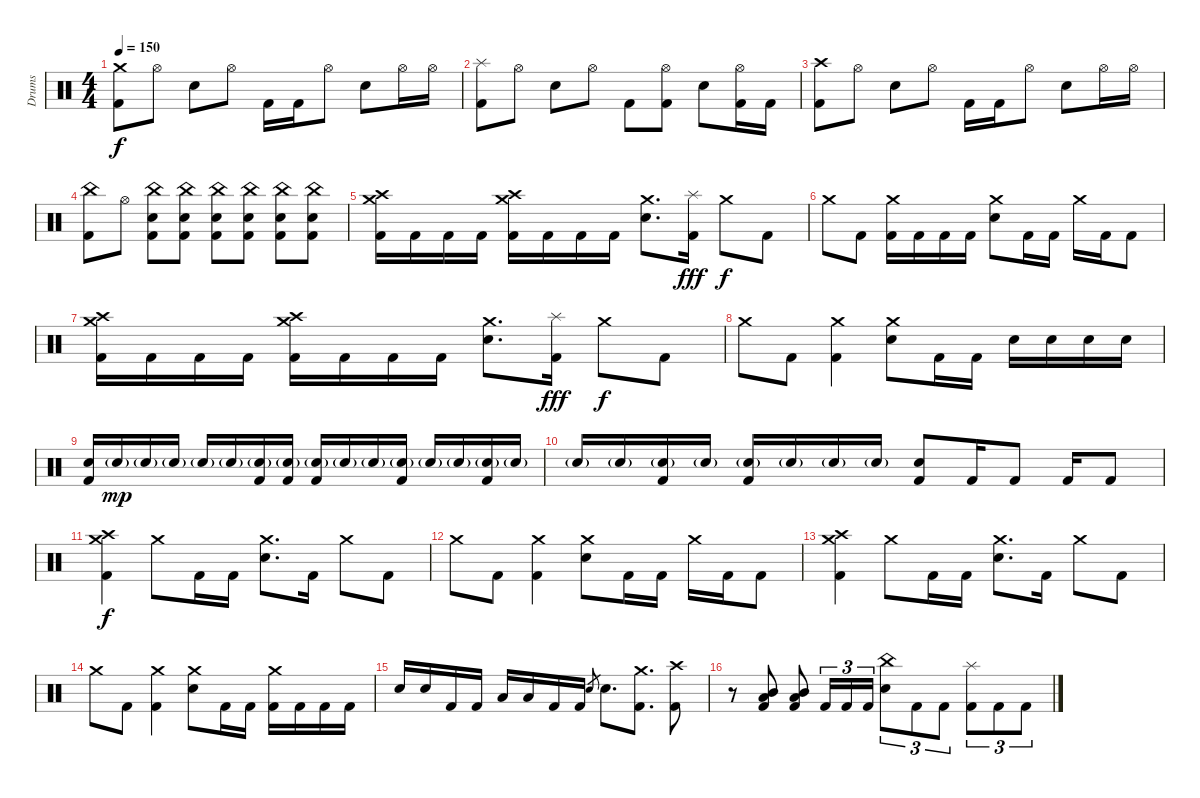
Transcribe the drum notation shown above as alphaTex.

\track ("Drums" "Drums") {instrument percussion}
\staff {score}
\articulation defaults
\ts (4 4)
\tempo 150
\clef neutral
\ks c
("Crash medium (hit)" "Kick (hit) 2").8{dy f} "Hi-Hat (open)".8 "Electric Snare (hit)".8 "Hi-Hat (open)".8 "Kick (hit) 2".16 "Kick (hit) 2".16 "Hi-Hat (open)".8 "Electric Snare (hit)".8 "Hi-Hat (open)".16 "Hi-Hat (open)".16 |
("Splash (hit)" "Kick (hit) 2").8 "Hi-Hat (open)".8 "Electric Snare (hit)".8 "Hi-Hat (open)".8 "Kick (hit) 2".8 ("Hi-Hat (open)" "Kick (hit) 2").8 "Electric Snare (hit)".8 ("Hi-Hat (open)" "Kick (hit) 2").16 "Kick (hit) 2".16 |
("Crash high (hit)" "Kick (hit) 2").8 "Hi-Hat (open)".8 "Electric Snare (hit)".8 "Hi-Hat (open)".8 "Kick (hit) 2".16 "Kick (hit) 2".16 "Hi-Hat (open)".8 "Electric Snare (hit)".8 "Hi-Hat (open)".16 "Hi-Hat (open)".16 |
("China (hit)" "Kick (hit) 2").8 "Hi-Hat (open)".8 ("China (hit)" "Electric Snare (hit)" "Kick (hit) 2").8 ("China (hit)" "Electric Snare (hit)" "Kick (hit) 2").8 ("China (hit)" "Electric Snare (hit)" "Kick (hit) 2").8 ("China (hit)" "Electric Snare (hit)" "Kick (hit) 2").8 ("China (hit)" "Electric Snare (hit)" "Kick (hit) 2").8 ("China (hit)" "Electric Snare (hit)" "Kick (hit) 2").8 |
("Crash medium (hit)" "Crash high (hit)" "Kick (hit) 2").16 "Kick (hit) 2".16 "Kick (hit) 2".16 "Kick (hit) 2".16 ("Crash medium (hit)" "Crash high (hit)" "Kick (hit) 2").16 "Kick (hit) 2".16 "Kick (hit) 2".16 "Kick (hit) 2".16 ("Crash medium (hit)" "Electric Snare (hit)").8{d} ("Splash (hit)" "Kick (hit) 2").16{dy fff} "Crash medium (hit)".8{dy f} "Kick (hit) 2".8 |
"Crash medium (hit)".8 "Kick (hit) 2".8 ("Crash medium (hit)" "Kick (hit) 2").16 "Kick (hit) 2".16 "Kick (hit) 2".16 "Kick (hit) 2".16 ("Crash medium (hit)" "Electric Snare (hit)").8 "Kick (hit) 2".16 "Kick (hit) 2".16 "Crash medium (hit)".16 "Kick (hit) 2".16 "Kick (hit) 2".8 |
("Crash medium (hit)" "Crash high (hit)" "Kick (hit) 2").16 "Kick (hit) 2".16 "Kick (hit) 2".16 "Kick (hit) 2".16 ("Crash medium (hit)" "Crash high (hit)" "Kick (hit) 2").16 "Kick (hit) 2".16 "Kick (hit) 2".16 "Kick (hit) 2".16 ("Crash medium (hit)" "Electric Snare (hit)").8{d} ("Splash (hit)" "Kick (hit) 2").16{dy fff} "Crash medium (hit)".8{dy f} "Kick (hit) 2".8 |
"Crash medium (hit)".8 "Kick (hit) 2".8 ("Crash medium (hit)" "Kick (hit) 2").4 ("Crash medium (hit)" "Electric Snare (hit)").8 "Kick (hit) 2".16 "Kick (hit) 2".16 "Electric Snare (hit)".16 "Electric Snare (hit)".16 "Electric Snare (hit)".16 "Electric Snare (hit)".16 |
("Electric Snare (hit)" "Kick (hit) 2").16 "Electric Snare (hit)"{g}.16{dy mp} "Electric Snare (hit)"{g}.16 "Electric Snare (hit)"{g}.16 "Electric Snare (hit)"{g}.16 "Electric Snare (hit)"{g}.16 ("Electric Snare (hit)"{g} "Kick (hit) 2").16 ("Electric Snare (hit)"{g} "Kick (hit) 2").16 ("Electric Snare (hit)"{g} "Kick (hit) 2").16 "Electric Snare (hit)"{g}.16 "Electric Snare (hit)"{g}.16 ("Electric Snare (hit)"{g} "Kick (hit) 2").16 "Electric Snare (hit)"{g}.16 "Electric Snare (hit)"{g}.16 ("Electric Snare (hit)"{g} "Kick (hit) 2").16 "Electric Snare (hit)"{g}.16 |
"Electric Snare (hit)"{g}.16 "Electric Snare (hit)"{g}.16 ("Electric Snare (hit)"{g} "Kick (hit) 2").16 "Electric Snare (hit)"{g}.16 ("Electric Snare (hit)"{g} "Kick (hit) 2").16 "Electric Snare (hit)"{g}.16 "Electric Snare (hit)"{g}.16 "Electric Snare (hit)"{g}.16 ("Electric Snare (hit)" "Kick (hit) 2").8{balance 0} "Kick (hit) 2".16{balance 16} "Kick (hit) 2".8 "Kick (hit) 2".16{balance 0} "Kick (hit) 2".8 |
("Crash medium (hit)" "Crash high (hit)" "Kick (hit) 2").4{dy f balance 8} "Crash medium (hit)".8 "Kick (hit) 2".16 "Kick (hit) 2".16 ("Crash medium (hit)" "Electric Snare (hit)").8{d} "Kick (hit) 2".16 "Crash medium (hit)".8 "Kick (hit) 2".8 |
"Crash medium (hit)".8 "Kick (hit) 2".8 ("Crash medium (hit)" "Kick (hit) 2").4 ("Crash medium (hit)" "Electric Snare (hit)").8 "Kick (hit) 2".16 "Kick (hit) 2".16 "Crash medium (hit)".16 "Kick (hit) 2".16 "Kick (hit) 2".8 |
("Crash medium (hit)" "Crash high (hit)" "Kick (hit) 2").4 "Crash medium (hit)".8 "Kick (hit) 2".16 "Kick (hit) 2".16 ("Crash medium (hit)" "Electric Snare (hit)").8{d} "Kick (hit) 2".16 "Crash medium (hit)".8 "Kick (hit) 2".8 |
"Crash medium (hit)".8 "Kick (hit) 2".8 ("Crash medium (hit)" "Kick (hit) 2").4 ("Crash medium (hit)" "Electric Snare (hit)").8 "Kick (hit) 2".16 "Kick (hit) 2".16 ("Crash medium (hit)" "Kick (hit) 2").16 "Kick (hit) 2".16 "Kick (hit) 2".16 "Kick (hit) 2".16 |
"Electric Snare (hit)".16 "Electric Snare (hit)".16 "Kick (hit) 2".16 "Kick (hit) 2".16 "Low Tom (hit)".16 "Low Tom (hit)".16 "Kick (hit) 2".16 "Kick (hit) 2".16 "Electric Snare (hit)".8{gr} "Electric Snare (hit)".8{d} ("Crash medium (hit)" "Kick (hit) 2").8{d} ("Crash high (hit)" "Kick (hit) 2").8 |
r.8 ("Mid Tom (hit)" "Low Tom (hit)" "Kick (hit) 2").8 ("Mid Tom (hit)" "Low Tom (hit)" "Kick (hit) 2").8 "Kick (hit) 2".16{tu (3 2)} "Kick (hit) 2".16{tu (3 2)} "Kick (hit) 2".16{tu (3 2)} ("China (hit)" "Electric Snare (hit)").8{tu (3 2)} "Kick (hit) 2".8{tu (3 2)} "Kick (hit) 2".8{tu (3 2)} ("Splash (hit)" "Kick (hit) 2").8{tu (3 2)} "Kick (hit) 2".8{tu (3 2)} "Kick (hit) 2".8{tu (3 2)}
